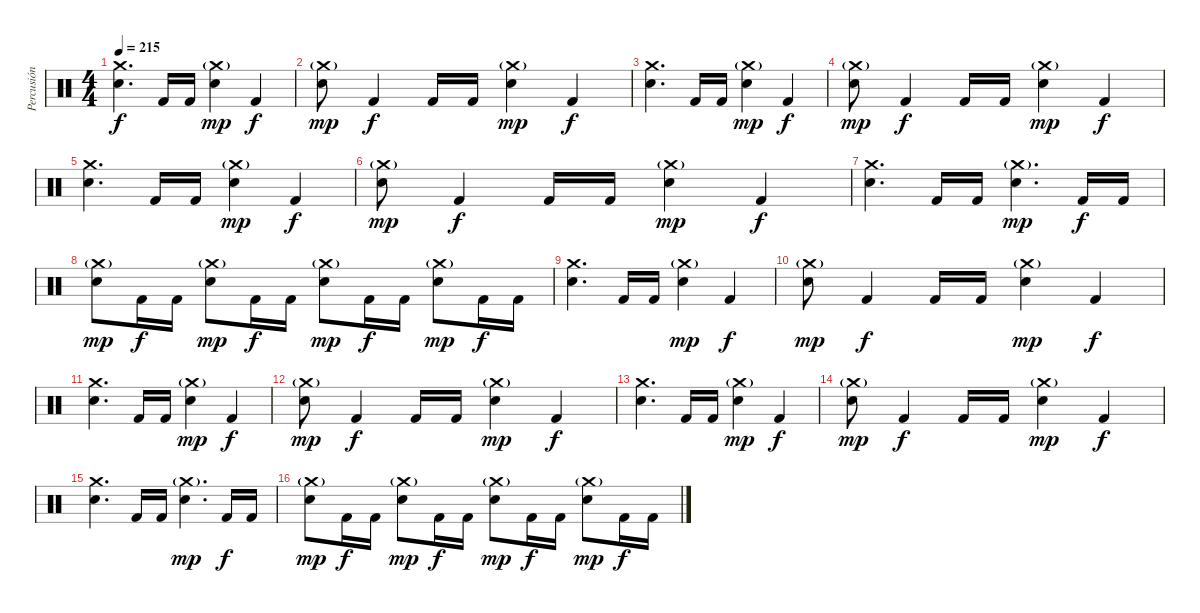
\track ("Percusión" "Percusión") {instrument percussion}
\staff {score}
\articulation defaults
\ts (4 4)
\tempo 215
\clef neutral
\ks c
("Crash medium (hit)" "Snare (hit) 2").4{d dy f} "Kick (hit) 2".16 "Kick (hit) 2".16 ("Crash medium (hit)"{g} "Snare (hit) 2").4{dy mp} "Kick (hit) 2".4{dy f} |
("Crash medium (hit)"{g} "Snare (hit) 2").8{dy mp} "Kick (hit) 2".4{dy f} "Kick (hit) 2".16 "Kick (hit) 2".16 ("Crash medium (hit)"{g} "Snare (hit) 2").4{dy mp} "Kick (hit) 2".4{dy f} |
("Crash medium (hit)" "Snare (hit) 2").4{d} "Kick (hit) 2".16 "Kick (hit) 2".16 ("Crash medium (hit)"{g} "Snare (hit) 2").4{dy mp} "Kick (hit) 2".4{dy f} |
("Crash medium (hit)"{g} "Snare (hit) 2").8{dy mp} "Kick (hit) 2".4{dy f} "Kick (hit) 2".16 "Kick (hit) 2".16 ("Crash medium (hit)"{g} "Snare (hit) 2").4{dy mp} "Kick (hit) 2".4{dy f} |
("Crash medium (hit)" "Snare (hit) 2").4{d} "Kick (hit) 2".16 "Kick (hit) 2".16 ("Crash medium (hit)"{g} "Snare (hit) 2").4{dy mp} "Kick (hit) 2".4{dy f} |
("Crash medium (hit)"{g} "Snare (hit) 2").8{dy mp} "Kick (hit) 2".4{dy f} "Kick (hit) 2".16 "Kick (hit) 2".16 ("Crash medium (hit)"{g} "Snare (hit) 2").4{dy mp} "Kick (hit) 2".4{dy f} |
("Crash medium (hit)" "Snare (hit) 2").4{d} "Kick (hit) 2".16 "Kick (hit) 2".16 ("Crash medium (hit)"{g} "Snare (hit) 2").4{d dy mp} "Kick (hit) 2".16{dy f} "Kick (hit) 2".16 |
("Crash medium (hit)"{g} "Snare (hit) 2").8{dy mp} "Kick (hit) 2".16{dy f} "Kick (hit) 2".16 ("Crash medium (hit)"{g} "Snare (hit) 2").8{dy mp} "Kick (hit) 2".16{dy f} "Kick (hit) 2".16 ("Crash medium (hit)"{g} "Snare (hit) 2").8{dy mp} "Kick (hit) 2".16{dy f} "Kick (hit) 2".16 ("Crash medium (hit)"{g} "Snare (hit) 2").8{dy mp} "Kick (hit) 2".16{dy f} "Kick (hit) 2".16 |
("Crash medium (hit)" "Snare (hit) 2").4{d} "Kick (hit) 2".16 "Kick (hit) 2".16 ("Crash medium (hit)"{g} "Snare (hit) 2").4{dy mp} "Kick (hit) 2".4{dy f} |
("Crash medium (hit)"{g} "Snare (hit) 2").8{dy mp} "Kick (hit) 2".4{dy f} "Kick (hit) 2".16 "Kick (hit) 2".16 ("Crash medium (hit)"{g} "Snare (hit) 2").4{dy mp} "Kick (hit) 2".4{dy f} |
("Crash medium (hit)" "Snare (hit) 2").4{d} "Kick (hit) 2".16 "Kick (hit) 2".16 ("Crash medium (hit)"{g} "Snare (hit) 2").4{dy mp} "Kick (hit) 2".4{dy f} |
("Crash medium (hit)"{g} "Snare (hit) 2").8{dy mp} "Kick (hit) 2".4{dy f} "Kick (hit) 2".16 "Kick (hit) 2".16 ("Crash medium (hit)"{g} "Snare (hit) 2").4{dy mp} "Kick (hit) 2".4{dy f} |
("Crash medium (hit)" "Snare (hit) 2").4{d} "Kick (hit) 2".16 "Kick (hit) 2".16 ("Crash medium (hit)"{g} "Snare (hit) 2").4{dy mp} "Kick (hit) 2".4{dy f} |
("Crash medium (hit)"{g} "Snare (hit) 2").8{dy mp} "Kick (hit) 2".4{dy f} "Kick (hit) 2".16 "Kick (hit) 2".16 ("Crash medium (hit)"{g} "Snare (hit) 2").4{dy mp} "Kick (hit) 2".4{dy f} |
("Crash medium (hit)" "Snare (hit) 2").4{d} "Kick (hit) 2".16 "Kick (hit) 2".16 ("Crash medium (hit)"{g} "Snare (hit) 2").4{d dy mp} "Kick (hit) 2".16{dy f} "Kick (hit) 2".16 |
("Crash medium (hit)"{g} "Snare (hit) 2").8{dy mp} "Kick (hit) 2".16{dy f} "Kick (hit) 2".16 ("Crash medium (hit)"{g} "Snare (hit) 2").8{dy mp} "Kick (hit) 2".16{dy f} "Kick (hit) 2".16 ("Crash medium (hit)"{g} "Snare (hit) 2").8{dy mp} "Kick (hit) 2".16{dy f} "Kick (hit) 2".16 ("Crash medium (hit)"{g} "Snare (hit) 2").8{dy mp} "Kick (hit) 2".16{dy f} "Kick (hit) 2".16
